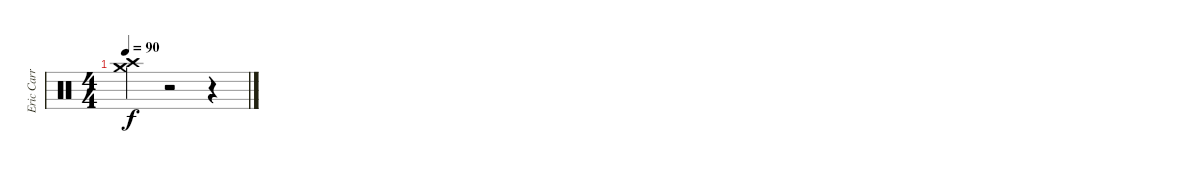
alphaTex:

\track ("Eric Carr" "Eric Carr") {instrument percussion}
\staff {score}
\articulation defaults
\ts (4 4)
\tempo 90
\clef neutral
\ks c
("Crash medium (hit)" "Crash high (hit)").4{dy f} r.2 r.4
